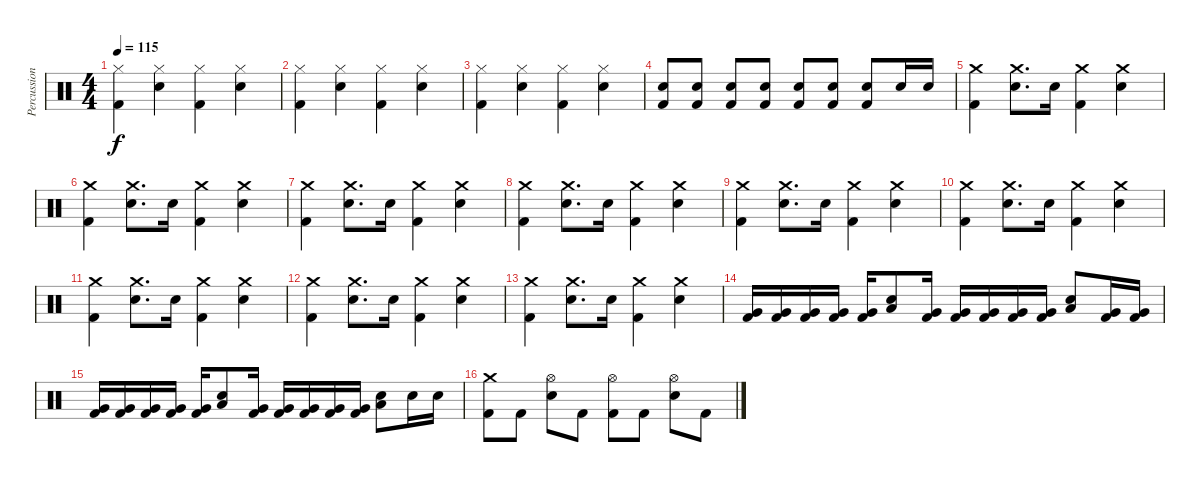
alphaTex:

\track ("Percussions" "Percussion") {instrument percussion}
\staff {score}
\articulation defaults
\ts (4 4)
\tempo 115
\clef neutral
\ks c
("Hi-Hat (closed)" "Kick (hit) 2").4{dy f} ("Hi-Hat (closed)" "Electric Snare (hit)").4 ("Hi-Hat (closed)" "Kick (hit) 2").4 ("Hi-Hat (closed)" "Electric Snare (hit)").4 |
("Hi-Hat (closed)" "Kick (hit) 2").4 ("Hi-Hat (closed)" "Electric Snare (hit)").4 ("Hi-Hat (closed)" "Kick (hit) 2").4 ("Hi-Hat (closed)" "Electric Snare (hit)").4 |
("Hi-Hat (closed)" "Kick (hit) 2").4 ("Hi-Hat (closed)" "Electric Snare (hit)").4 ("Hi-Hat (closed)" "Kick (hit) 2").4 ("Hi-Hat (closed)" "Electric Snare (hit)").4 |
("Electric Snare (hit)" "Kick (hit) 2").8 ("Electric Snare (hit)" "Kick (hit) 2").8 ("Electric Snare (hit)" "Kick (hit) 2").8 ("Electric Snare (hit)" "Kick (hit) 2").8 ("Electric Snare (hit)" "Kick (hit) 2").8 ("Electric Snare (hit)" "Kick (hit) 2").8 ("Electric Snare (hit)" "Kick (hit) 2").8 "Electric Snare (hit)".16 "Electric Snare (hit)".16 |
("Crash medium (hit)" "Kick (hit) 2").4 ("Crash medium (hit)" "Electric Snare (hit)").8{d} "Electric Snare (hit)".16 ("Crash medium (hit)" "Kick (hit) 2").4 ("Crash medium (hit)" "Electric Snare (hit)").4 |
("Crash medium (hit)" "Kick (hit) 2").4 ("Crash medium (hit)" "Electric Snare (hit)").8{d} "Electric Snare (hit)".16 ("Crash medium (hit)" "Kick (hit) 2").4 ("Crash medium (hit)" "Electric Snare (hit)").4 |
("Crash medium (hit)" "Kick (hit) 2").4 ("Crash medium (hit)" "Electric Snare (hit)").8{d} "Electric Snare (hit)".16 ("Crash medium (hit)" "Kick (hit) 2").4 ("Crash medium (hit)" "Electric Snare (hit)").4 |
("Crash medium (hit)" "Kick (hit) 2").4 ("Crash medium (hit)" "Electric Snare (hit)").8{d} "Electric Snare (hit)".16 ("Crash medium (hit)" "Kick (hit) 2").4 ("Crash medium (hit)" "Electric Snare (hit)").4 |
("Crash medium (hit)" "Kick (hit) 2").4 ("Crash medium (hit)" "Electric Snare (hit)").8{d} "Electric Snare (hit)".16 ("Crash medium (hit)" "Kick (hit) 2").4 ("Crash medium (hit)" "Electric Snare (hit)").4 |
("Crash medium (hit)" "Kick (hit) 2").4 ("Crash medium (hit)" "Electric Snare (hit)").8{d} "Electric Snare (hit)".16 ("Crash medium (hit)" "Kick (hit) 2").4 ("Crash medium (hit)" "Electric Snare (hit)").4 |
("Crash medium (hit)" "Kick (hit) 2").4 ("Crash medium (hit)" "Electric Snare (hit)").8{d} "Electric Snare (hit)".16 ("Crash medium (hit)" "Kick (hit) 2").4 ("Crash medium (hit)" "Electric Snare (hit)").4 |
("Crash medium (hit)" "Kick (hit) 2").4 ("Crash medium (hit)" "Electric Snare (hit)").8{d} "Electric Snare (hit)".16 ("Crash medium (hit)" "Kick (hit) 2").4 ("Crash medium (hit)" "Electric Snare (hit)").4 |
("Crash medium (hit)" "Kick (hit) 2").4 ("Crash medium (hit)" "Electric Snare (hit)").8{d} "Electric Snare (hit)".16 ("Crash medium (hit)" "Kick (hit) 2").4 ("Crash medium (hit)" "Electric Snare (hit)").4 |
("Very Low Tom (hit)" "Kick (hit) 2").16 ("Very Low Tom (hit)" "Kick (hit) 2").16 ("Very Low Tom (hit)" "Kick (hit) 2").16 ("Very Low Tom (hit)" "Kick (hit) 2").16 ("Very Low Tom (hit)" "Kick (hit) 2").16 ("Low Floor Tom (hit)" "Electric Snare (hit)").8 ("Very Low Tom (hit)" "Kick (hit) 2").16 ("Very Low Tom (hit)" "Kick (hit) 2").16 ("Very Low Tom (hit)" "Kick (hit) 2").16 ("Very Low Tom (hit)" "Kick (hit) 2").16 ("Very Low Tom (hit)" "Kick (hit) 2").16 ("Low Floor Tom (hit)" "Electric Snare (hit)").8 ("Very Low Tom (hit)" "Kick (hit) 2").16 ("Very Low Tom (hit)" "Kick (hit) 2").16 |
("Very Low Tom (hit)" "Kick (hit) 2").16 ("Very Low Tom (hit)" "Kick (hit) 2").16 ("Very Low Tom (hit)" "Kick (hit) 2").16 ("Very Low Tom (hit)" "Kick (hit) 2").16 ("Very Low Tom (hit)" "Kick (hit) 2").16 ("Low Floor Tom (hit)" "Electric Snare (hit)").8 ("Very Low Tom (hit)" "Kick (hit) 2").16 ("Very Low Tom (hit)" "Kick (hit) 2").16 ("Very Low Tom (hit)" "Kick (hit) 2").16 ("Very Low Tom (hit)" "Kick (hit) 2").16 ("Very Low Tom (hit)" "Kick (hit) 2").16 ("Low Floor Tom (hit)" "Electric Snare (hit)").8 "Electric Snare (hit)".16 "Electric Snare (hit)".16 |
("Crash medium (hit)" "Kick (hit) 2").8 "Kick (hit) 2".8 ("Hi-Hat (open)" "Electric Snare (hit)").8 "Kick (hit) 2".8 ("Hi-Hat (open)" "Kick (hit) 2").8 "Kick (hit) 2".8 ("Hi-Hat (open)" "Electric Snare (hit)").8 "Kick (hit) 2".8
